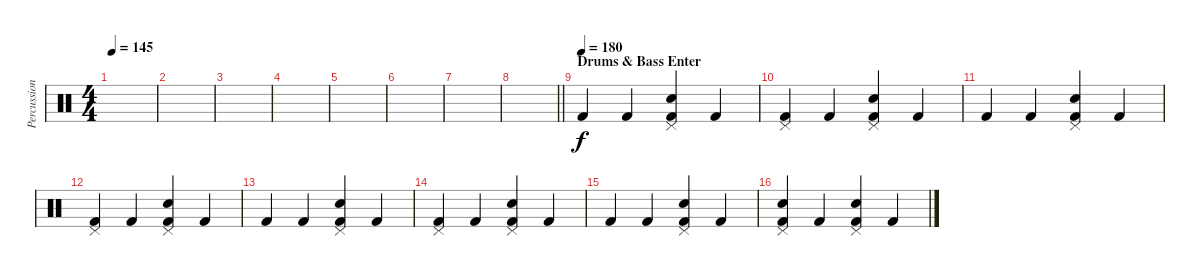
\track ("Percussion" "Percussion") {instrument percussion}
\staff {score}
\articulation defaults
\ts (4 4)
\tempo 145
\clef neutral
\ks c
|
|
|
|
|
|
|
\barLineRight lightlight
|
\section ("" "Drums & Bass Enter")
\tempo (180)
"Kick (hit) 2".4 "Kick (hit) 2".4 ("Kick (hit) 2" "Snare (hit) 2" "Pedal Hi-Hat (hit)").4 "Kick (hit) 2".4 |
("Kick (hit) 2" "Pedal Hi-Hat (hit)").4 "Kick (hit) 2".4 ("Kick (hit) 2" "Snare (hit) 2" "Pedal Hi-Hat (hit)").4 "Kick (hit) 2".4 |
"Kick (hit) 2".4 "Kick (hit) 2".4 ("Kick (hit) 2" "Snare (hit) 2" "Pedal Hi-Hat (hit)").4 "Kick (hit) 2".4 |
("Kick (hit) 2" "Pedal Hi-Hat (hit)").4 "Kick (hit) 2".4 ("Kick (hit) 2" "Snare (hit) 2" "Pedal Hi-Hat (hit)").4 "Kick (hit) 2".4 |
"Kick (hit) 2".4 "Kick (hit) 2".4 ("Kick (hit) 2" "Snare (hit) 2" "Pedal Hi-Hat (hit)").4 "Kick (hit) 2".4 |
("Kick (hit) 2" "Pedal Hi-Hat (hit)").4 "Kick (hit) 2".4 ("Kick (hit) 2" "Snare (hit) 2" "Pedal Hi-Hat (hit)").4 "Kick (hit) 2".4 |
"Kick (hit) 2".4 "Kick (hit) 2".4 ("Kick (hit) 2" "Snare (hit) 2" "Pedal Hi-Hat (hit)").4 "Kick (hit) 2".4 |
("Kick (hit) 2" "Snare (hit) 2" "Pedal Hi-Hat (hit)").4 "Kick (hit) 2".4 ("Kick (hit) 2" "Snare (hit) 2" "Pedal Hi-Hat (hit)").4 "Kick (hit) 2".4
